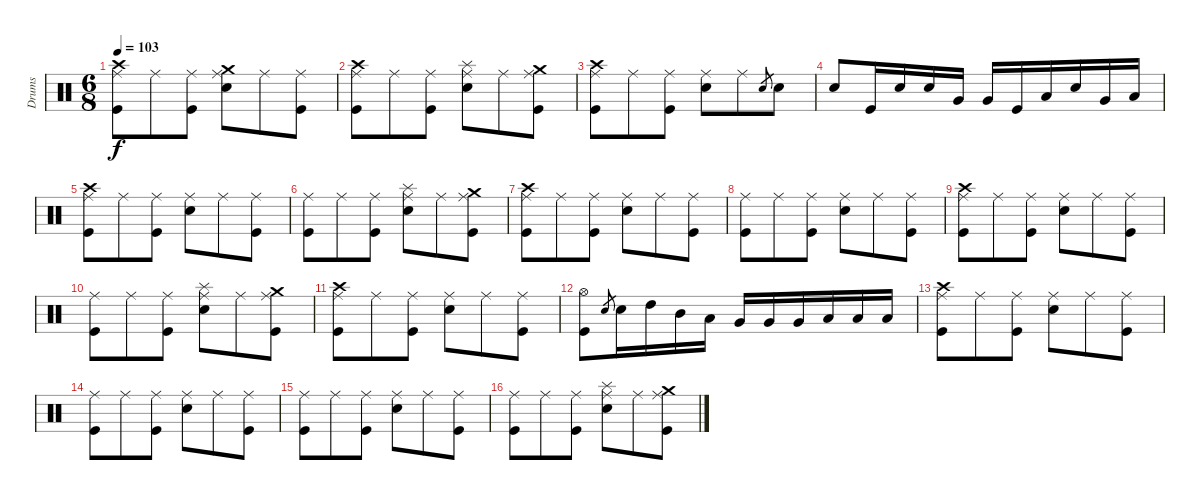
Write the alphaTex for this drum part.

\track ("Drums" "Drums") {instrument percussion}
\staff {score}
\articulation defaults
\ts (6 8)
\tempo 103
\clef neutral
\ks c
("Crash high (hit)" "Ride (middle)" "Kick (hit)").8{dy f} "Ride (middle)".8 ("Ride (middle)" "Kick (hit)").8 ("Crash medium (hit)" "Ride (middle)" "Electric Snare (hit)").8 "Ride (middle)".8 ("Ride (middle)" "Kick (hit)").8 |
("Crash high (hit)" "Ride (middle)" "Kick (hit)").8 "Ride (middle)".8 ("Ride (middle)" "Kick (hit)").8 ("Splash (hit)" "Ride (middle)" "Electric Snare (hit)").8 "Ride (middle)".8 ("Crash medium (hit)" "Ride (middle)" "Kick (hit)").8 |
("Crash high (hit)" "Ride (middle)" "Kick (hit)").8 "Ride (middle)".8 ("Ride (middle)" "Kick (hit)").8 ("Ride (middle)" "Electric Snare (hit)").8 "Ride (middle)".8 "Electric Snare (hit)".8{gr} "Electric Snare (hit)".8 |
"Electric Snare (hit)".8 "Kick (hit)".16 "Electric Snare (hit)".16 "Electric Snare (hit)".16 "Very Low Tom (hit)".16 "Very Low Tom (hit)".16 "Kick (hit)".16 "Low Tom (hit)".16 "Electric Snare (hit)".16 "Very Low Tom (hit)".16 "Low Floor Tom (hit)".16 |
("Crash high (hit)" "Ride (middle)" "Kick (hit)").8 "Ride (middle)".8 ("Ride (middle)" "Kick (hit)").8 ("Ride (middle)" "Electric Snare (hit)").8 "Ride (middle)".8 ("Ride (middle)" "Kick (hit)").8 |
("Ride (middle)" "Kick (hit)").8 "Ride (middle)".8 ("Ride (middle)" "Kick (hit)").8 ("Splash (hit)" "Ride (middle)" "Electric Snare (hit)").8 "Ride (middle)".8 ("Crash medium (hit)" "Ride (middle)" "Kick (hit)").8 |
("Crash high (hit)" "Ride (middle)" "Kick (hit)").8 "Ride (middle)".8 ("Ride (middle)" "Kick (hit)").8 ("Ride (middle)" "Electric Snare (hit)").8 "Ride (middle)".8 ("Ride (middle)" "Kick (hit)").8 |
("Ride (middle)" "Kick (hit)").8 "Ride (middle)".8 ("Ride (middle)" "Kick (hit)").8 ("Ride (middle)" "Electric Snare (hit)").8 "Ride (middle)".8 ("Ride (middle)" "Kick (hit)").8 |
("Crash high (hit)" "Ride (middle)" "Kick (hit)").8 "Ride (middle)".8 ("Ride (middle)" "Kick (hit)").8 ("Ride (middle)" "Electric Snare (hit)").8 "Ride (middle)".8 ("Ride (middle)" "Kick (hit)").8 |
("Ride (middle)" "Kick (hit)").8 "Ride (middle)".8 ("Ride (middle)" "Kick (hit)").8 ("Splash (hit)" "Ride (middle)" "Electric Snare (hit)").8 "Ride (middle)".8 ("Crash medium (hit)" "Ride (middle)" "Kick (hit)").8 |
("Crash high (hit)" "Ride (middle)" "Kick (hit)").8 "Ride (middle)".8 ("Ride (middle)" "Kick (hit)").8 ("Ride (middle)" "Electric Snare (hit)").8 "Ride (middle)".8 ("Ride (middle)" "Kick (hit)").8 |
("Hi-Hat (open)" "Kick (hit)").8 "Electric Snare (hit)".8{gr} "Electric Snare (hit)".16 "High Tom (hit)".16 "Mid Tom (hit)".16 "Low Tom (hit)".16 "Very Low Tom (hit)".16 "Very Low Tom (hit)".16 "Very Low Tom (hit)".16 "Low Floor Tom (hit)".16 "Low Floor Tom (hit)".16 "Low Floor Tom (hit)".16 |
("Crash high (hit)" "Ride (middle)" "Kick (hit)").8 "Ride (middle)".8 ("Ride (middle)" "Kick (hit)").8 ("Ride (middle)" "Electric Snare (hit)").8 "Ride (middle)".8 ("Ride (middle)" "Kick (hit)").8 |
("Ride (middle)" "Kick (hit)").8 "Ride (middle)".8 ("Ride (middle)" "Kick (hit)").8 ("Ride (middle)" "Electric Snare (hit)").8 "Ride (middle)".8 ("Ride (middle)" "Kick (hit)").8 |
("Ride (middle)" "Kick (hit)").8 "Ride (middle)".8 ("Ride (middle)" "Kick (hit)").8 ("Ride (middle)" "Electric Snare (hit)").8 "Ride (middle)".8 ("Ride (middle)" "Kick (hit)").8 |
("Ride (middle)" "Kick (hit)").8 "Ride (middle)".8 ("Ride (middle)" "Kick (hit)").8 ("Splash (hit)" "Ride (middle)" "Electric Snare (hit)").8 "Ride (middle)".8 ("Crash medium (hit)" "Ride (middle)" "Kick (hit)").8
